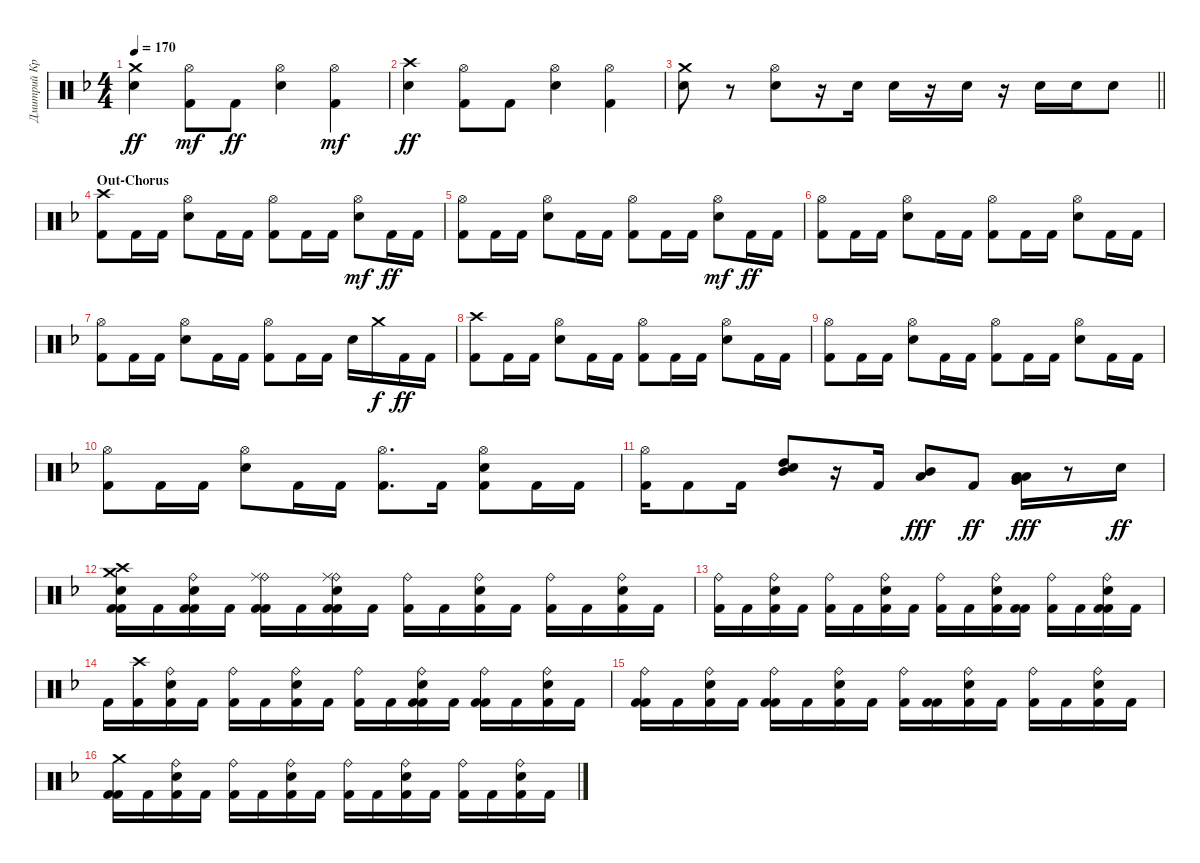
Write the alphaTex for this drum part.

\track ("Дмитрий Кривенков" "Дмитрий Кр") {instrument percussion}
\staff {score}
\articulation defaults
\ts (4 4)
\tempo 170
\clef neutral
\ks f
("Electric Snare (hit)" "Crash medium (hit)").4{dy ff} ("Kick (hit) 2" "Hi-Hat (open)").8{dy mf} "Kick (hit) 2".8{dy ff} ("Hi-Hat (open)" "Electric Snare (hit)").4 ("Kick (hit) 2" "Hi-Hat (open)").4{dy mf} |
("Electric Snare (hit)" "Crash high (hit)").4{dy ff} ("Hi-Hat (open)" "Kick (hit) 2").8 "Kick (hit) 2".8 ("Hi-Hat (open)" "Electric Snare (hit)").4 ("Hi-Hat (open)" "Kick (hit) 2").4 |
\barLineRight lightlight
("Electric Snare (hit)" "Crash medium (hit)").8 r.8 ("Hi-Hat (open)" "Electric Snare (hit)").8 r.16 "Electric Snare (hit)".16 "Electric Snare (hit)".16 r.16 "Electric Snare (hit)".16 r.16 "Electric Snare (hit)".16 "Electric Snare (hit)".16 "Electric Snare (hit)".8 |
\section ("" "Out-Chorus")
("Crash high (hit)" "Kick (hit) 2").8 "Kick (hit) 2".16 "Kick (hit) 2".16 ("Hi-Hat (open)" "Electric Snare (hit)").8 "Kick (hit) 2".16 "Kick (hit) 2".16 ("Hi-Hat (open)" "Kick (hit) 2").8 "Kick (hit) 2".16 "Kick (hit) 2".16 ("Electric Snare (hit)" "Hi-Hat (open)").8{dy mf} "Kick (hit) 2".16{dy ff} "Kick (hit) 2".16 |
("Hi-Hat (open)" "Kick (hit) 2").8 "Kick (hit) 2".16 "Kick (hit) 2".16 ("Hi-Hat (open)" "Electric Snare (hit)").8 "Kick (hit) 2".16 "Kick (hit) 2".16 ("Hi-Hat (open)" "Kick (hit) 2").8 "Kick (hit) 2".16 "Kick (hit) 2".16 ("Electric Snare (hit)" "Hi-Hat (open)").8{dy mf} "Kick (hit) 2".16{dy ff} "Kick (hit) 2".16 |
("Hi-Hat (open)" "Kick (hit) 2").8 "Kick (hit) 2".16 "Kick (hit) 2".16 ("Hi-Hat (open)" "Electric Snare (hit)").8 "Kick (hit) 2".16 "Kick (hit) 2".16 ("Hi-Hat (open)" "Kick (hit) 2").8 "Kick (hit) 2".16 "Kick (hit) 2".16 ("Hi-Hat (open)" "Electric Snare (hit)").8 "Kick (hit) 2".16 "Kick (hit) 2".16 |
("Hi-Hat (open)" "Kick (hit) 2").8 "Kick (hit) 2".16 "Kick (hit) 2".16 ("Hi-Hat (open)" "Electric Snare (hit)").8 "Kick (hit) 2".16 "Kick (hit) 2".16 ("Hi-Hat (open)" "Kick (hit) 2").8 "Kick (hit) 2".16 "Kick (hit) 2".16 "Electric Snare (hit)".16 "Crash medium (hit)".16{dy f} "Kick (hit) 2".16{dy ff} "Kick (hit) 2".16 |
("Crash high (hit)" "Kick (hit) 2").8 "Kick (hit) 2".16 "Kick (hit) 2".16 ("Hi-Hat (open)" "Electric Snare (hit)").8 "Kick (hit) 2".16 "Kick (hit) 2".16 ("Hi-Hat (open)" "Kick (hit) 2").8 "Kick (hit) 2".16 "Kick (hit) 2".16 ("Hi-Hat (open)" "Electric Snare (hit)").8 "Kick (hit) 2".16 "Kick (hit) 2".16 |
("Hi-Hat (open)" "Kick (hit) 2").8 "Kick (hit) 2".16 "Kick (hit) 2".16 ("Hi-Hat (open)" "Electric Snare (hit)").8 "Kick (hit) 2".16 "Kick (hit) 2".16 ("Hi-Hat (open)" "Kick (hit) 2").8 "Kick (hit) 2".16 "Kick (hit) 2".16 ("Hi-Hat (open)" "Electric Snare (hit)").8 "Kick (hit) 2".16 "Kick (hit) 2".16 |
("Hi-Hat (open)" "Kick (hit) 2").8 "Kick (hit) 2".16 "Kick (hit) 2".16 ("Hi-Hat (open)" "Electric Snare (hit)").8 "Kick (hit) 2".16 "Kick (hit) 2".16 ("Hi-Hat (open)" "Kick (hit) 2").8{d} "Kick (hit) 2".16 ("Kick (hit) 2" "Hi-Hat (open)" "Electric Snare (hit)").8 "Kick (hit) 2".16 "Kick (hit) 2".16 |
("Hi-Hat (open)" "Kick (hit) 2").16 "Kick (hit) 2".8 "Kick (hit) 2".16 ("High Tom (hit)" "Mid Tom (hit)" "Electric Snare (hit)").8 r.16 "Kick (hit) 2".16 ("Mid Tom (hit)" "Low Tom (hit)").8{dy fff} "Kick (hit) 2".8{dy ff} ("Low Tom (hit)" "Very Low Tom (hit)" "Low Floor Tom (hit)").16{dy fff} r.8 "Electric Snare (hit)".16{dy ff} |
("Electric Snare (hit)" "Kick (hit) 2" "Kick (hit) 2" "Crash high (hit)" "Crash medium (hit)").16 "Kick (hit) 2".16 ("Kick (hit) 2" "Electric Snare (hit)" "Ride (bell)" "Kick (hit) 2").16 "Kick (hit) 2".16 ("Kick (hit) 2" "Ride (bell)" "Ride (middle)" "Kick (hit) 2").16 "Kick (hit) 2".16 ("Kick (hit) 2" "Electric Snare (hit)" "Ride (bell)" "Ride (middle)" "Kick (hit) 2").16 "Kick (hit) 2".16 ("Ride (bell)" "Kick (hit) 2").16 "Kick (hit) 2".16 ("Electric Snare (hit)" "Ride (bell)" "Kick (hit) 2").16 "Kick (hit) 2".16 ("Ride (bell)" "Kick (hit) 2").16 "Kick (hit) 2".16 ("Electric Snare (hit)" "Ride (bell)" "Kick (hit) 2").16 "Kick (hit) 2".16 |
("Ride (bell)" "Kick (hit) 2").16 "Kick (hit) 2".16 ("Electric Snare (hit)" "Ride (bell)" "Kick (hit) 2").16 "Kick (hit) 2".16 ("Ride (bell)" "Kick (hit) 2").16 "Kick (hit) 2".16 ("Kick (hit) 2" "Electric Snare (hit)" "Ride (bell)").16 "Kick (hit) 2".16 ("Kick (hit) 2" "Ride (bell)").16 "Kick (hit) 2".16 ("Kick (hit) 2" "Electric Snare (hit)" "Ride (bell)").16 ("Kick (hit) 2" "Kick (hit) 2").16 ("Ride (bell)" "Kick (hit) 2").16 "Kick (hit) 2".16 ("Kick (hit) 2" "Electric Snare (hit)" "Ride (bell)" "Kick (hit) 2").16 "Kick (hit) 2".16 |
"Kick (hit) 2".16 ("Crash high (hit)" "Kick (hit) 2").16 ("Electric Snare (hit)" "Ride (bell)" "Kick (hit) 2").16 "Kick (hit) 2".16 ("Ride (bell)" "Kick (hit) 2").16 "Kick (hit) 2".16 ("Electric Snare (hit)" "Ride (bell)" "Kick (hit) 2").16 "Kick (hit) 2".16 ("Kick (hit) 2" "Ride (bell)").16 "Kick (hit) 2".16 ("Kick (hit) 2" "Electric Snare (hit)" "Ride (bell)" "Kick (hit) 2").16 "Kick (hit) 2".16 ("Kick (hit) 2" "Ride (bell)" "Kick (hit) 2").16 "Kick (hit) 2".16 ("Electric Snare (hit)" "Ride (bell)" "Kick (hit) 2").16 "Kick (hit) 2".16 |
("Kick (hit) 2" "Kick (hit) 2" "Ride (bell)").16 "Kick (hit) 2".16 ("Electric Snare (hit)" "Ride (bell)" "Kick (hit) 2").16 "Kick (hit) 2".16 ("Kick (hit) 2" "Ride (bell)" "Kick (hit) 2").16 "Kick (hit) 2".16 ("Kick (hit) 2" "Electric Snare (hit)" "Ride (bell)").16 "Kick (hit) 2".16 ("Kick (hit) 2" "Ride (bell)").16 ("Kick (hit) 2" "Kick (hit) 2").16 ("Kick (hit) 2" "Electric Snare (hit)" "Ride (bell)").16 "Kick (hit) 2".16 ("Ride (bell)" "Kick (hit) 2").16 "Kick (hit) 2".16 ("Kick (hit) 2" "Electric Snare (hit)" "Ride (bell)").16 "Kick (hit) 2".16 |
("Kick (hit) 2" "Crash medium (hit)" "Kick (hit) 2").16 "Kick (hit) 2".16 ("Electric Snare (hit)" "Ride (bell)" "Kick (hit) 2").16 "Kick (hit) 2".16 ("Ride (bell)" "Kick (hit) 2").16 "Kick (hit) 2".16 ("Kick (hit) 2" "Electric Snare (hit)" "Ride (bell)").16 "Kick (hit) 2".16 ("Ride (bell)" "Kick (hit) 2").16 "Kick (hit) 2".16 ("Kick (hit) 2" "Electric Snare (hit)" "Ride (bell)").16 "Kick (hit) 2".16 ("Ride (bell)" "Kick (hit) 2").16 "Kick (hit) 2".16 ("Electric Snare (hit)" "Ride (bell)" "Kick (hit) 2").16 "Kick (hit) 2".16
